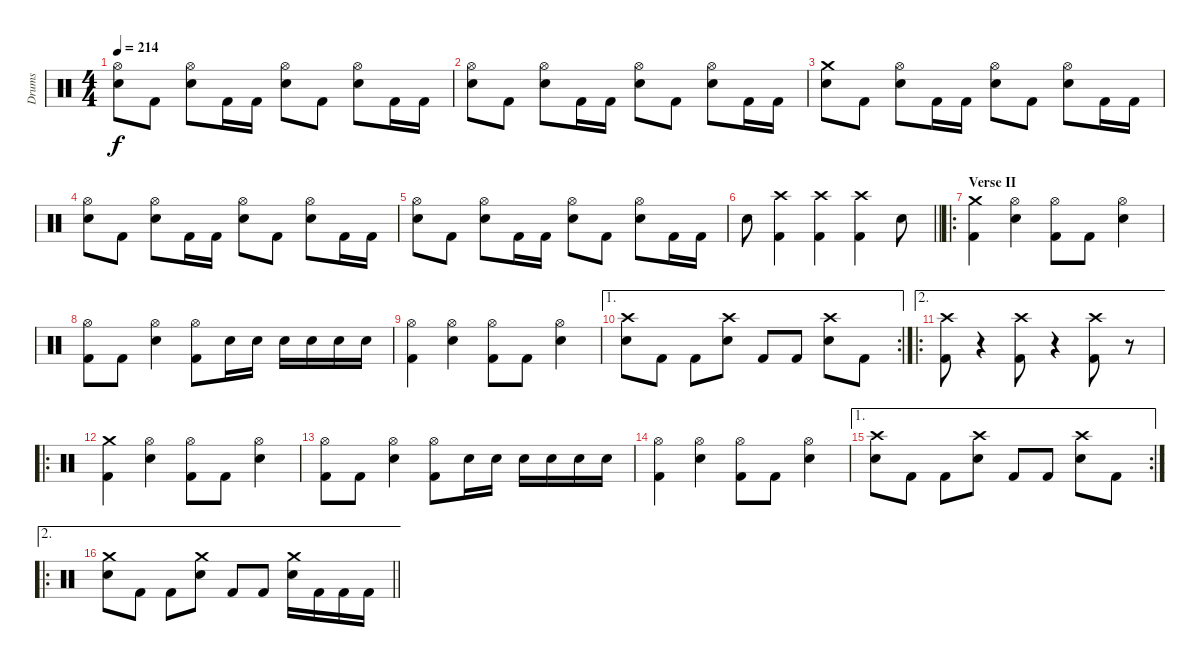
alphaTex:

\track ("Drums" "Drums") {instrument percussion}
\staff {score}
\articulation defaults
\ts (4 4)
\tempo 214
\clef neutral
\ks c
("Hi-Hat (open)" "Electric Snare (hit)").8{dy f} "Kick (hit) 2".8 ("Hi-Hat (open)" "Electric Snare (hit)").8 "Kick (hit) 2".16 "Kick (hit) 2".16 ("Hi-Hat (open)" "Electric Snare (hit)").8 "Kick (hit) 2".8 ("Hi-Hat (open)" "Electric Snare (hit)").8 "Kick (hit) 2".16 "Kick (hit) 2".16 |
("Hi-Hat (open)" "Electric Snare (hit)").8 "Kick (hit) 2".8 ("Hi-Hat (open)" "Electric Snare (hit)").8 "Kick (hit) 2".16 "Kick (hit) 2".16 ("Hi-Hat (open)" "Electric Snare (hit)").8 "Kick (hit) 2".8 ("Hi-Hat (open)" "Electric Snare (hit)").8 "Kick (hit) 2".16 "Kick (hit) 2".16 |
("Crash medium (hit)" "Electric Snare (hit)").8 "Kick (hit) 2".8 ("Hi-Hat (open)" "Electric Snare (hit)").8 "Kick (hit) 2".16 "Kick (hit) 2".16 ("Hi-Hat (open)" "Electric Snare (hit)").8 "Kick (hit) 2".8 ("Hi-Hat (open)" "Electric Snare (hit)").8 "Kick (hit) 2".16 "Kick (hit) 2".16 |
("Hi-Hat (open)" "Electric Snare (hit)").8 "Kick (hit) 2".8 ("Hi-Hat (open)" "Electric Snare (hit)").8 "Kick (hit) 2".16 "Kick (hit) 2".16 ("Hi-Hat (open)" "Electric Snare (hit)").8 "Kick (hit) 2".8 ("Hi-Hat (open)" "Electric Snare (hit)").8 "Kick (hit) 2".16 "Kick (hit) 2".16 |
("Hi-Hat (open)" "Electric Snare (hit)").8 "Kick (hit) 2".8 ("Hi-Hat (open)" "Electric Snare (hit)").8 "Kick (hit) 2".16 "Kick (hit) 2".16 ("Hi-Hat (open)" "Electric Snare (hit)").8 "Kick (hit) 2".8 ("Hi-Hat (open)" "Electric Snare (hit)").8 "Kick (hit) 2".16 "Kick (hit) 2".16 |
\barLineRight lightlight "Electric Snare (hit)".8
("Crash high (hit)" "Kick (hit) 2").4 ("Crash high (hit)" "Kick (hit) 2").4 ("Crash high (hit)" "Kick (hit) 2").4 "Electric Snare (hit)".8 |
\ro
\section ("" "Verse II")
("Crash medium (hit)" "Kick (hit) 2").4 ("Hi-Hat (open)" "Electric Snare (hit)").4 ("Hi-Hat (open)" "Kick (hit) 2").8 "Kick (hit) 2".8 ("Hi-Hat (open)" "Electric Snare (hit)").4 |
("Hi-Hat (open)" "Kick (hit) 2").8 "Kick (hit) 2".8 ("Hi-Hat (open)" "Electric Snare (hit)").4 ("Hi-Hat (open)" "Kick (hit) 2").8 "Electric Snare (hit)".16 "Electric Snare (hit)".16 "Electric Snare (hit)".16 "Electric Snare (hit)".16 "Electric Snare (hit)".16 "Electric Snare (hit)".16 |
("Hi-Hat (open)" "Kick (hit) 2").4 ("Hi-Hat (open)" "Electric Snare (hit)").4 ("Hi-Hat (open)" "Kick (hit) 2").8 "Kick (hit) 2".8 ("Hi-Hat (open)" "Electric Snare (hit)").4 |
\ae 1
\rc 2
("Crash high (hit)" "Electric Snare (hit)").8 "Kick (hit) 2".8 "Kick (hit) 2".8 ("Crash high (hit)" "Electric Snare (hit)").8 "Kick (hit) 2".8 "Kick (hit) 2".8 ("Crash high (hit)" "Electric Snare (hit)").8 "Kick (hit) 2".8 |
\ae 2
\ro
("Crash high (hit)" "Kick (hit) 2").8 r.4{volume 0} ("Crash high (hit)" "Kick (hit) 2").8{volume 16} r.4{volume 0} ("Crash high (hit)" "Kick (hit) 2").8{volume 16} r.8{volume 0} |
\ro
("Crash medium (hit)" "Kick (hit) 2").4{volume 16} ("Hi-Hat (open)" "Electric Snare (hit)").4 ("Hi-Hat (open)" "Kick (hit) 2").8 "Kick (hit) 2".8 ("Hi-Hat (open)" "Electric Snare (hit)").4 |
("Hi-Hat (open)" "Kick (hit) 2").8 "Kick (hit) 2".8 ("Hi-Hat (open)" "Electric Snare (hit)").4 ("Hi-Hat (open)" "Kick (hit) 2").8 "Electric Snare (hit)".16 "Electric Snare (hit)".16 "Electric Snare (hit)".16 "Electric Snare (hit)".16 "Electric Snare (hit)".16 "Electric Snare (hit)".16 |
("Hi-Hat (open)" "Kick (hit) 2").4 ("Hi-Hat (open)" "Electric Snare (hit)").4 ("Hi-Hat (open)" "Kick (hit) 2").8 "Kick (hit) 2".8 ("Hi-Hat (open)" "Electric Snare (hit)").4 |
\ae 1
\rc 2
("Crash high (hit)" "Electric Snare (hit)").8 "Kick (hit) 2".8 "Kick (hit) 2".8 ("Crash high (hit)" "Electric Snare (hit)").8 "Kick (hit) 2".8 "Kick (hit) 2".8 ("Crash high (hit)" "Electric Snare (hit)").8 "Kick (hit) 2".8 |
\ae 2
\ro
\barLineRight lightlight
("Crash medium (hit)" "Electric Snare (hit)").8 "Kick (hit) 2".8 "Kick (hit) 2".8 ("Crash medium (hit)" "Electric Snare (hit)").8 "Kick (hit) 2".8 "Kick (hit) 2".8 ("Crash medium (hit)" "Electric Snare (hit)").16 "Kick (hit) 2".16 "Kick (hit) 2".16 "Kick (hit) 2".16
